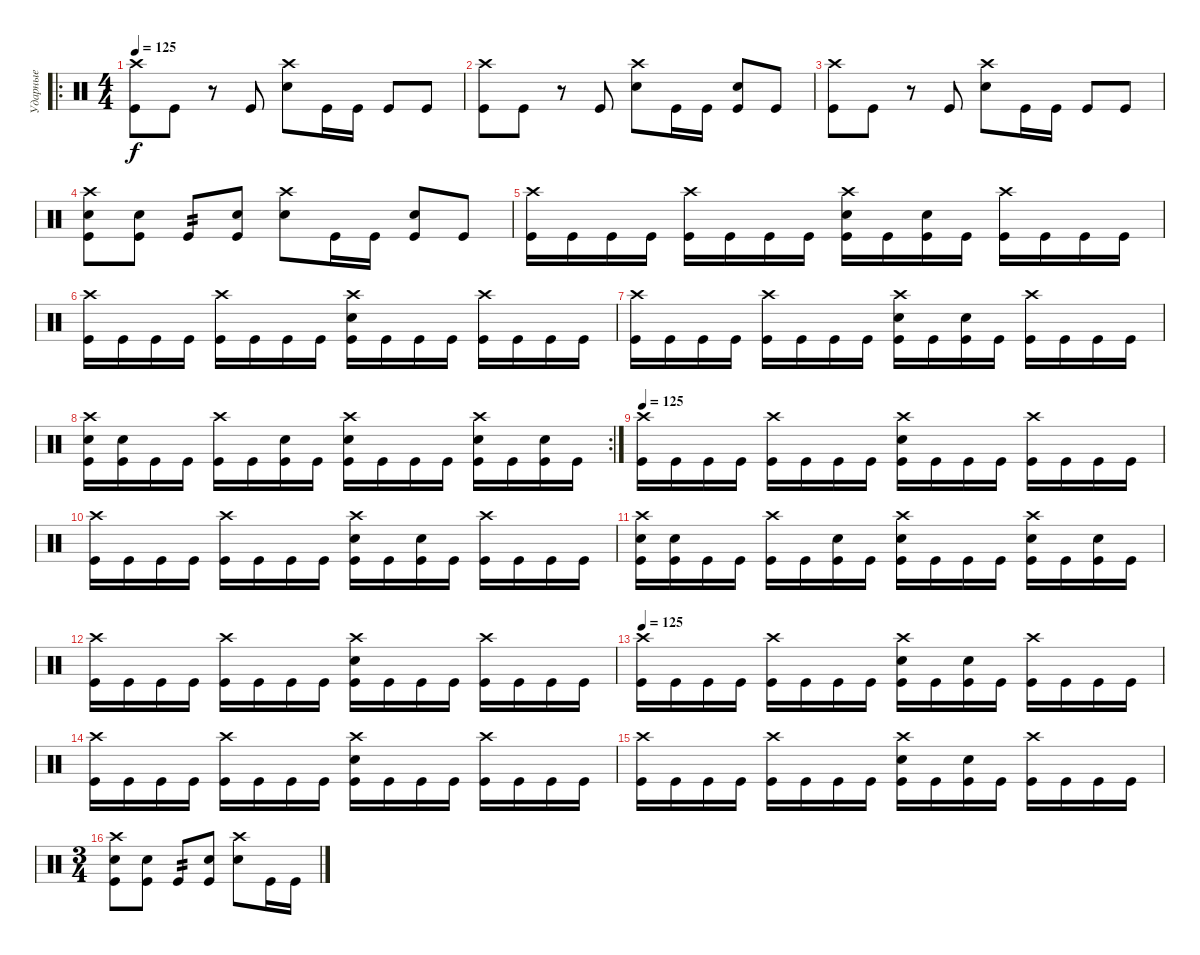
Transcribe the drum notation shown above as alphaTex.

\track ("Ударные" "Ударные") {instrument percussion}
\staff {score}
\articulation defaults
\ro
\ts (4 4)
\tempo 125
\clef neutral
\ks c
("Crash high (hit)" "Kick (hit)").8{dy f} "Kick (hit)".8 r.8 "Kick (hit)".8 ("Crash high (hit)" "Electric Snare (hit)").8 "Kick (hit)".16 "Kick (hit)".16 "Kick (hit)".8 "Kick (hit)".8 |
("Crash high (hit)" "Kick (hit)").8 "Kick (hit)".8 r.8 "Kick (hit)".8 ("Crash high (hit)" "Electric Snare (hit)").8 "Kick (hit)".16 "Kick (hit)".16 ("Electric Snare (hit)" "Kick (hit)").8 "Kick (hit)".8 |
("Crash high (hit)" "Kick (hit)").8 "Kick (hit)".8 r.8 "Kick (hit)".8 ("Crash high (hit)" "Electric Snare (hit)").8 "Kick (hit)".16 "Kick (hit)".16 "Kick (hit)".8 "Kick (hit)".8 |
("Crash high (hit)" "Electric Snare (hit)" "Kick (hit)").8 ("Electric Snare (hit)" "Kick (hit)").8 "Kick (hit)".8{tp 2} ("Electric Snare (hit)" "Kick (hit)").8 ("Crash high (hit)" "Electric Snare (hit)").8 "Kick (hit)".16 "Kick (hit)".16 ("Electric Snare (hit)" "Kick (hit)").8 "Kick (hit)".8 |
("Crash high (hit)" "Kick (hit)").16 "Kick (hit)".16 "Kick (hit)".16 "Kick (hit)".16 ("Crash high (hit)" "Kick (hit)").16 "Kick (hit)".16 "Kick (hit)".16 "Kick (hit)".16 ("Crash high (hit)" "Electric Snare (hit)" "Kick (hit)").16 "Kick (hit)".16 ("Electric Snare (hit)" "Kick (hit)").16 "Kick (hit)".16 ("Crash high (hit)" "Kick (hit)").16 "Kick (hit)".16 "Kick (hit)".16 "Kick (hit)".16 |
("Crash high (hit)" "Kick (hit)").16 "Kick (hit)".16 "Kick (hit)".16 "Kick (hit)".16 ("Crash high (hit)" "Kick (hit)").16 "Kick (hit)".16 "Kick (hit)".16 "Kick (hit)".16 ("Crash high (hit)" "Electric Snare (hit)" "Kick (hit)").16 "Kick (hit)".16 "Kick (hit)".16 "Kick (hit)".16 ("Crash high (hit)" "Kick (hit)").16 "Kick (hit)".16 "Kick (hit)".16 "Kick (hit)".16 |
("Crash high (hit)" "Kick (hit)").16 "Kick (hit)".16 "Kick (hit)".16 "Kick (hit)".16 ("Crash high (hit)" "Kick (hit)").16 "Kick (hit)".16 "Kick (hit)".16 "Kick (hit)".16 ("Crash high (hit)" "Electric Snare (hit)" "Kick (hit)").16 "Kick (hit)".16 ("Electric Snare (hit)" "Kick (hit)").16 "Kick (hit)".16 ("Crash high (hit)" "Kick (hit)").16 "Kick (hit)".16 "Kick (hit)".16 "Kick (hit)".16 |
\rc 2
("Crash high (hit)" "Electric Snare (hit)" "Kick (hit)").16 ("Electric Snare (hit)" "Kick (hit)").16 "Kick (hit)".16 "Kick (hit)".16 ("Crash high (hit)" "Kick (hit)").16 "Kick (hit)".16 ("Electric Snare (hit)" "Kick (hit)").16 "Kick (hit)".16 ("Crash high (hit)" "Electric Snare (hit)" "Kick (hit)").16 "Kick (hit)".16 "Kick (hit)".16 "Kick (hit)".16 ("Crash high (hit)" "Electric Snare (hit)" "Kick (hit)").16 "Kick (hit)".16 ("Electric Snare (hit)" "Kick (hit)").16 "Kick (hit)".16 |
\tempo 125
("Crash high (hit)" "Kick (hit)").16 "Kick (hit)".16 "Kick (hit)".16 "Kick (hit)".16 ("Crash high (hit)" "Kick (hit)").16 "Kick (hit)".16 "Kick (hit)".16 "Kick (hit)".16 ("Crash high (hit)" "Electric Snare (hit)" "Kick (hit)").16 "Kick (hit)".16 "Kick (hit)".16 "Kick (hit)".16 ("Crash high (hit)" "Kick (hit)").16 "Kick (hit)".16 "Kick (hit)".16 "Kick (hit)".16 |
("Crash high (hit)" "Kick (hit)").16 "Kick (hit)".16 "Kick (hit)".16 "Kick (hit)".16 ("Crash high (hit)" "Kick (hit)").16 "Kick (hit)".16 "Kick (hit)".16 "Kick (hit)".16 ("Crash high (hit)" "Electric Snare (hit)" "Kick (hit)").16 "Kick (hit)".16 ("Electric Snare (hit)" "Kick (hit)").16 "Kick (hit)".16 ("Crash high (hit)" "Kick (hit)").16 "Kick (hit)".16 "Kick (hit)".16 "Kick (hit)".16 |
("Crash high (hit)" "Electric Snare (hit)" "Kick (hit)").16 ("Electric Snare (hit)" "Kick (hit)").16 "Kick (hit)".16 "Kick (hit)".16 ("Crash high (hit)" "Kick (hit)").16 "Kick (hit)".16 ("Electric Snare (hit)" "Kick (hit)").16 "Kick (hit)".16 ("Crash high (hit)" "Electric Snare (hit)" "Kick (hit)").16 "Kick (hit)".16 "Kick (hit)".16 "Kick (hit)".16 ("Crash high (hit)" "Electric Snare (hit)" "Kick (hit)").16 "Kick (hit)".16 ("Electric Snare (hit)" "Kick (hit)").16 "Kick (hit)".16 |
("Crash high (hit)" "Kick (hit)").16 "Kick (hit)".16 "Kick (hit)".16 "Kick (hit)".16 ("Crash high (hit)" "Kick (hit)").16 "Kick (hit)".16 "Kick (hit)".16 "Kick (hit)".16 ("Crash high (hit)" "Electric Snare (hit)" "Kick (hit)").16 "Kick (hit)".16 "Kick (hit)".16 "Kick (hit)".16 ("Crash high (hit)" "Kick (hit)").16 "Kick (hit)".16 "Kick (hit)".16 "Kick (hit)".16 |
\tempo 125
("Crash high (hit)" "Kick (hit)").16 "Kick (hit)".16 "Kick (hit)".16 "Kick (hit)".16 ("Crash high (hit)" "Kick (hit)").16 "Kick (hit)".16 "Kick (hit)".16 "Kick (hit)".16 ("Crash high (hit)" "Electric Snare (hit)" "Kick (hit)").16 "Kick (hit)".16 ("Electric Snare (hit)" "Kick (hit)").16 "Kick (hit)".16 ("Crash high (hit)" "Kick (hit)").16 "Kick (hit)".16 "Kick (hit)".16 "Kick (hit)".16 |
("Crash high (hit)" "Kick (hit)").16 "Kick (hit)".16 "Kick (hit)".16 "Kick (hit)".16 ("Crash high (hit)" "Kick (hit)").16 "Kick (hit)".16 "Kick (hit)".16 "Kick (hit)".16 ("Crash high (hit)" "Electric Snare (hit)" "Kick (hit)").16 "Kick (hit)".16 "Kick (hit)".16 "Kick (hit)".16 ("Crash high (hit)" "Kick (hit)").16 "Kick (hit)".16 "Kick (hit)".16 "Kick (hit)".16 |
("Crash high (hit)" "Kick (hit)").16 "Kick (hit)".16 "Kick (hit)".16 "Kick (hit)".16 ("Crash high (hit)" "Kick (hit)").16 "Kick (hit)".16 "Kick (hit)".16 "Kick (hit)".16 ("Crash high (hit)" "Electric Snare (hit)" "Kick (hit)").16 "Kick (hit)".16 ("Electric Snare (hit)" "Kick (hit)").16 "Kick (hit)".16 ("Crash high (hit)" "Kick (hit)").16 "Kick (hit)".16 "Kick (hit)".16 "Kick (hit)".16 |
\ts (3 4)
("Crash high (hit)" "Electric Snare (hit)" "Kick (hit)").8 ("Electric Snare (hit)" "Kick (hit)").8 "Kick (hit)".8{tp 2} ("Electric Snare (hit)" "Kick (hit)").8 ("Crash high (hit)" "Electric Snare (hit)").8 "Kick (hit)".16 "Kick (hit)".16
